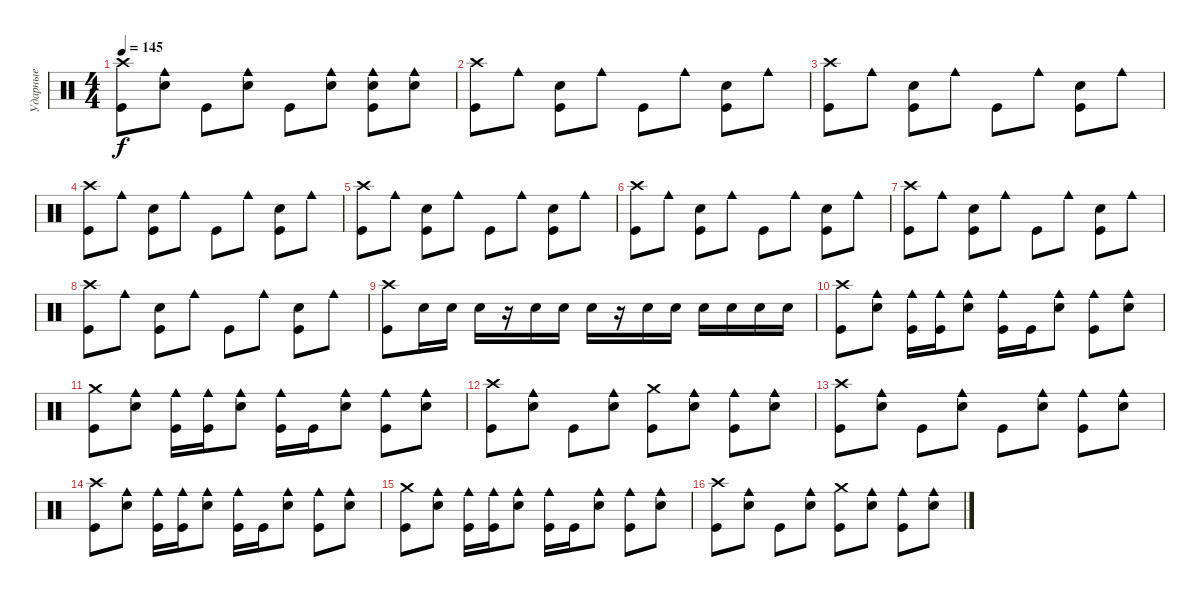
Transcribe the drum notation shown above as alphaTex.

\track ("Ударные" "Ударные") {instrument percussion}
\staff {score}
\articulation defaults
\ts (4 4)
\tempo 145
\clef neutral
\ks c
("Crash high (hit)" "Kick (hit)").8{dy f} ("Cowbell medium (hit)" "Electric Snare (hit)").8 "Kick (hit)".8 ("Cowbell medium (hit)" "Electric Snare (hit)").8 "Kick (hit)".8 ("Cowbell medium (hit)" "Electric Snare (hit)").8 ("Cowbell medium (hit)" "Electric Snare (hit)" "Kick (hit)").8 ("Cowbell medium (hit)" "Electric Snare (hit)").8 |
("Crash high (hit)" "Kick (hit)").8 "Cowbell medium (hit)".8 ("Electric Snare (hit)" "Kick (hit)").8 "Cowbell medium (hit)".8 "Kick (hit)".8 "Cowbell medium (hit)".8 ("Electric Snare (hit)" "Kick (hit)").8 "Cowbell medium (hit)".8 |
("Crash high (hit)" "Kick (hit)").8 "Cowbell medium (hit)".8 ("Electric Snare (hit)" "Kick (hit)").8 "Cowbell medium (hit)".8 "Kick (hit)".8 "Cowbell medium (hit)".8 ("Electric Snare (hit)" "Kick (hit)").8 "Cowbell medium (hit)".8 |
("Crash high (hit)" "Kick (hit)").8 "Cowbell medium (hit)".8 ("Electric Snare (hit)" "Kick (hit)").8 "Cowbell medium (hit)".8 "Kick (hit)".8 "Cowbell medium (hit)".8 ("Electric Snare (hit)" "Kick (hit)").8 "Cowbell medium (hit)".8 |
("Crash high (hit)" "Kick (hit)").8 "Cowbell medium (hit)".8 ("Electric Snare (hit)" "Kick (hit)").8 "Cowbell medium (hit)".8 "Kick (hit)".8 "Cowbell medium (hit)".8 ("Electric Snare (hit)" "Kick (hit)").8 "Cowbell medium (hit)".8 |
("Crash high (hit)" "Kick (hit)").8 "Cowbell medium (hit)".8 ("Electric Snare (hit)" "Kick (hit)").8 "Cowbell medium (hit)".8 "Kick (hit)".8 "Cowbell medium (hit)".8 ("Electric Snare (hit)" "Kick (hit)").8 "Cowbell medium (hit)".8 |
("Crash high (hit)" "Kick (hit)").8 "Cowbell medium (hit)".8 ("Electric Snare (hit)" "Kick (hit)").8 "Cowbell medium (hit)".8 "Kick (hit)".8 "Cowbell medium (hit)".8 ("Electric Snare (hit)" "Kick (hit)").8 "Cowbell medium (hit)".8 |
("Crash high (hit)" "Kick (hit)").8 "Cowbell medium (hit)".8 ("Electric Snare (hit)" "Kick (hit)").8 "Cowbell medium (hit)".8 "Kick (hit)".8 "Cowbell medium (hit)".8 ("Electric Snare (hit)" "Kick (hit)").8 "Cowbell medium (hit)".8 |
("Crash high (hit)" "Kick (hit)").8 "Electric Snare (hit)".16 "Electric Snare (hit)".16 "Electric Snare (hit)".16 r.16 "Electric Snare (hit)".16 "Electric Snare (hit)".16 "Electric Snare (hit)".16 r.16 "Electric Snare (hit)".16 "Electric Snare (hit)".16 "Electric Snare (hit)".16 "Electric Snare (hit)".16 "Electric Snare (hit)".16 "Electric Snare (hit)".16 |
("Crash high (hit)" "Kick (hit)").8 ("Cowbell medium (hit)" "Electric Snare (hit)").8 ("Cowbell medium (hit)" "Kick (hit)").16 ("Cowbell medium (hit)" "Kick (hit)").16 ("Cowbell medium (hit)" "Electric Snare (hit)").8 ("Cowbell medium (hit)" "Kick (hit)").16 "Kick (hit)".16 ("Cowbell medium (hit)" "Electric Snare (hit)").8 ("Cowbell medium (hit)" "Kick (hit)").8 ("Cowbell medium (hit)" "Electric Snare (hit)").8 |
("Crash medium (hit)" "Kick (hit)").8 ("Cowbell medium (hit)" "Electric Snare (hit)").8 ("Cowbell medium (hit)" "Kick (hit)").16 ("Cowbell medium (hit)" "Kick (hit)").16 ("Cowbell medium (hit)" "Electric Snare (hit)").8 ("Cowbell medium (hit)" "Kick (hit)").16 "Kick (hit)".16 ("Cowbell medium (hit)" "Electric Snare (hit)").8 ("Cowbell medium (hit)" "Kick (hit)").8 ("Cowbell medium (hit)" "Electric Snare (hit)").8 |
("Crash high (hit)" "Kick (hit)").8 ("Cowbell medium (hit)" "Electric Snare (hit)").8 "Kick (hit)".8 ("Cowbell medium (hit)" "Electric Snare (hit)").8 ("Crash medium (hit)" "Kick (hit)").8 ("Cowbell medium (hit)" "Electric Snare (hit)").8 ("Cowbell medium (hit)" "Kick (hit)").8 ("Cowbell medium (hit)" "Electric Snare (hit)").8 |
("Crash high (hit)" "Kick (hit)").8 ("Cowbell medium (hit)" "Electric Snare (hit)").8 "Kick (hit)".8 ("Cowbell medium (hit)" "Electric Snare (hit)").8 "Kick (hit)".8 ("Cowbell medium (hit)" "Electric Snare (hit)").8 ("Cowbell medium (hit)" "Kick (hit)").8 ("Cowbell medium (hit)" "Electric Snare (hit)").8 |
("Crash high (hit)" "Kick (hit)").8 ("Cowbell medium (hit)" "Electric Snare (hit)").8 ("Cowbell medium (hit)" "Kick (hit)").16 ("Cowbell medium (hit)" "Kick (hit)").16 ("Cowbell medium (hit)" "Electric Snare (hit)").8 ("Cowbell medium (hit)" "Kick (hit)").16 "Kick (hit)".16 ("Cowbell medium (hit)" "Electric Snare (hit)").8 ("Cowbell medium (hit)" "Kick (hit)").8 ("Cowbell medium (hit)" "Electric Snare (hit)").8 |
("Crash medium (hit)" "Kick (hit)").8 ("Cowbell medium (hit)" "Electric Snare (hit)").8 ("Cowbell medium (hit)" "Kick (hit)").16 ("Cowbell medium (hit)" "Kick (hit)").16 ("Cowbell medium (hit)" "Electric Snare (hit)").8 ("Cowbell medium (hit)" "Kick (hit)").16 "Kick (hit)".16 ("Cowbell medium (hit)" "Electric Snare (hit)").8 ("Cowbell medium (hit)" "Kick (hit)").8 ("Cowbell medium (hit)" "Electric Snare (hit)").8 |
("Crash high (hit)" "Kick (hit)").8 ("Cowbell medium (hit)" "Electric Snare (hit)").8 "Kick (hit)".8 ("Cowbell medium (hit)" "Electric Snare (hit)").8 ("Crash medium (hit)" "Kick (hit)").8 ("Cowbell medium (hit)" "Electric Snare (hit)").8 ("Cowbell medium (hit)" "Kick (hit)").8 ("Cowbell medium (hit)" "Electric Snare (hit)").8
